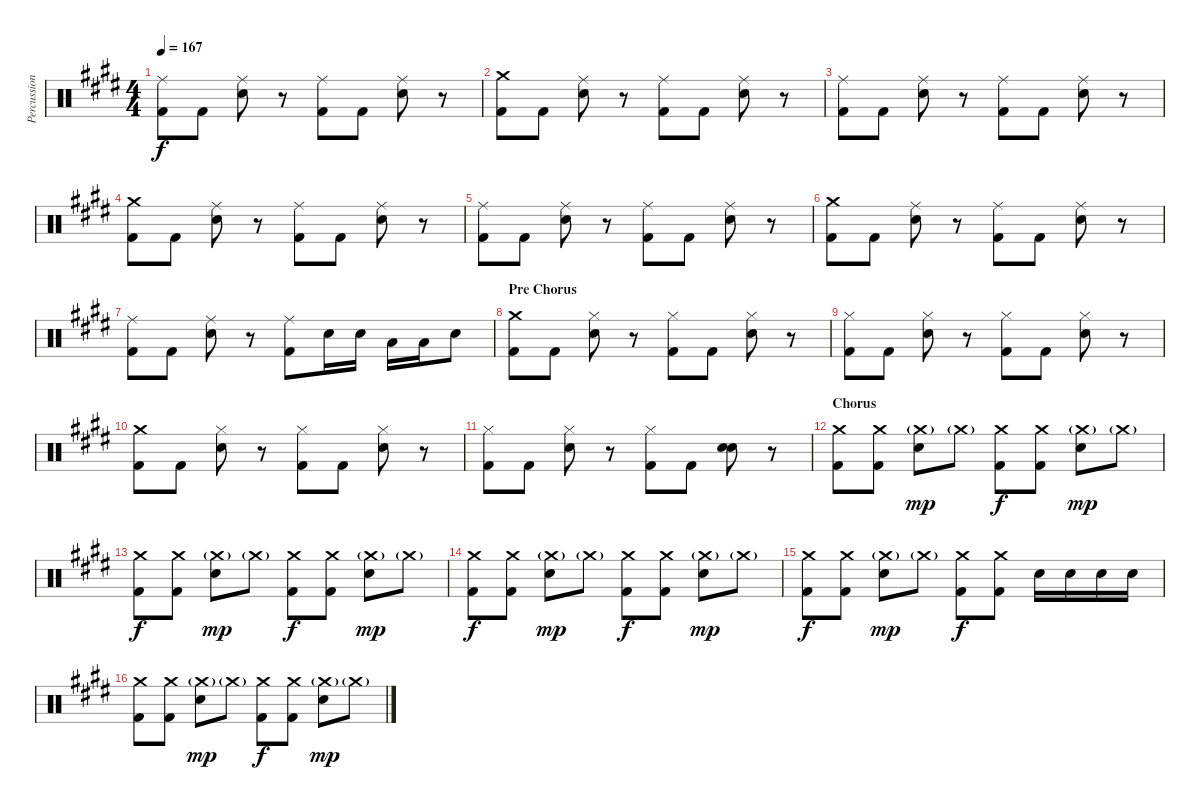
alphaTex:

\track ("Percussion" "Percussion") {instrument percussion}
\staff {score}
\articulation defaults
\ts (4 4)
\tempo 167
\clef neutral
\ks e
("Ride (middle)" "Kick (hit) 2").8{dy f} "Kick (hit) 2".8 ("Ride (middle)" "Electric Snare (hit)").8 r.8 ("Ride (middle)" "Kick (hit) 2").8 "Kick (hit) 2".8 ("Ride (middle)" "Electric Snare (hit)").8 r.8 |
("Crash medium (hit)" "Kick (hit) 2").8 "Kick (hit) 2".8 ("Ride (middle)" "Electric Snare (hit)").8 r.8 ("Ride (middle)" "Kick (hit) 2").8 "Kick (hit) 2".8 ("Ride (middle)" "Electric Snare (hit)").8 r.8 |
("Ride (middle)" "Kick (hit) 2").8 "Kick (hit) 2".8 ("Ride (middle)" "Electric Snare (hit)").8 r.8 ("Ride (middle)" "Kick (hit) 2").8 "Kick (hit) 2".8 ("Ride (middle)" "Electric Snare (hit)").8 r.8 |
("Crash medium (hit)" "Kick (hit) 2").8 "Kick (hit) 2".8 ("Ride (middle)" "Electric Snare (hit)").8 r.8 ("Ride (middle)" "Kick (hit) 2").8 "Kick (hit) 2".8 ("Ride (middle)" "Electric Snare (hit)").8 r.8 |
("Ride (middle)" "Kick (hit) 2").8 "Kick (hit) 2".8 ("Ride (middle)" "Electric Snare (hit)").8 r.8 ("Ride (middle)" "Kick (hit) 2").8 "Kick (hit) 2".8 ("Ride (middle)" "Electric Snare (hit)").8 r.8 |
("Crash medium (hit)" "Kick (hit) 2").8 "Kick (hit) 2".8 ("Ride (middle)" "Electric Snare (hit)").8 r.8 ("Ride (middle)" "Kick (hit) 2").8 "Kick (hit) 2".8 ("Ride (middle)" "Electric Snare (hit)").8 r.8 |
("Ride (middle)" "Kick (hit) 2").8 "Kick (hit) 2".8 ("Ride (middle)" "Electric Snare (hit)").8 r.8 ("Ride (middle)" "Kick (hit) 2").8 "Electric Snare (hit)".16 "Electric Snare (hit)".16 "Low Tom (hit)".16 "Low Tom (hit)".16 "Electric Snare (hit)".8 |
\section ("" "Pre Chorus")
("Crash medium (hit)" "Kick (hit) 2").8 "Kick (hit) 2".8 ("Hi-Hat (closed)" "Electric Snare (hit)").8 r.8 ("Hi-Hat (closed)" "Kick (hit) 2").8 "Kick (hit) 2".8 ("Hi-Hat (closed)" "Electric Snare (hit)").8 r.8 |
("Hi-Hat (closed)" "Kick (hit) 2").8 "Kick (hit) 2".8 ("Hi-Hat (closed)" "Electric Snare (hit)").8 r.8 ("Hi-Hat (closed)" "Kick (hit) 2").8 "Kick (hit) 2".8 ("Hi-Hat (closed)" "Electric Snare (hit)").8 r.8 |
("Crash medium (hit)" "Kick (hit) 2").8 "Kick (hit) 2".8 ("Hi-Hat (closed)" "Electric Snare (hit)").8 r.8 ("Hi-Hat (closed)" "Kick (hit) 2").8 "Kick (hit) 2".8 ("Hi-Hat (closed)" "Electric Snare (hit)").8 r.8 |
("Hi-Hat (closed)" "Kick (hit) 2").8 "Kick (hit) 2".8 ("Hi-Hat (closed)" "Electric Snare (hit)").8 r.8 ("Hi-Hat (closed)" "Kick (hit) 2").8 "Kick (hit) 2".8 ("Electric Snare (hit)" "Electric Snare (hit)").8{bd 240} r.8 |
\section ("" "Chorus")
("Crash medium (hit)" "Kick (hit) 2").8 ("Crash medium (hit)" "Kick (hit) 2").8 ("Crash medium (hit)"{g} "Electric Snare (hit)").8{dy mp} "Crash medium (hit)"{g}.8 ("Crash medium (hit)" "Kick (hit) 2").8{dy f} ("Crash medium (hit)" "Kick (hit) 2").8 ("Crash medium (hit)"{g} "Electric Snare (hit)").8{dy mp} "Crash medium (hit)"{g}.8 |
("Crash medium (hit)" "Kick (hit) 2").8{dy f} ("Crash medium (hit)" "Kick (hit) 2").8 ("Crash medium (hit)"{g} "Electric Snare (hit)").8{dy mp} "Crash medium (hit)"{g}.8 ("Crash medium (hit)" "Kick (hit) 2").8{dy f} ("Crash medium (hit)" "Kick (hit) 2").8 ("Crash medium (hit)"{g} "Electric Snare (hit)").8{dy mp} "Crash medium (hit)"{g}.8 |
("Crash medium (hit)" "Kick (hit) 2").8{dy f} ("Crash medium (hit)" "Kick (hit) 2").8 ("Crash medium (hit)"{g} "Electric Snare (hit)").8{dy mp} "Crash medium (hit)"{g}.8 ("Crash medium (hit)" "Kick (hit) 2").8{dy f} ("Crash medium (hit)" "Kick (hit) 2").8 ("Crash medium (hit)"{g} "Electric Snare (hit)").8{dy mp} "Crash medium (hit)"{g}.8 |
("Crash medium (hit)" "Kick (hit) 2").8{dy f} ("Crash medium (hit)" "Kick (hit) 2").8 ("Crash medium (hit)"{g} "Electric Snare (hit)").8{dy mp} "Crash medium (hit)"{g}.8 ("Crash medium (hit)" "Kick (hit) 2").8{dy f} ("Crash medium (hit)" "Kick (hit) 2").8 "Electric Snare (hit)".16 "Electric Snare (hit)".16 "Electric Snare (hit)".16 "Electric Snare (hit)".16 |
("Crash medium (hit)" "Kick (hit) 2").8 ("Crash medium (hit)" "Kick (hit) 2").8 ("Crash medium (hit)"{g} "Electric Snare (hit)").8{dy mp} "Crash medium (hit)"{g}.8 ("Crash medium (hit)" "Kick (hit) 2").8{dy f} ("Crash medium (hit)" "Kick (hit) 2").8 ("Crash medium (hit)"{g} "Electric Snare (hit)").8{dy mp} "Crash medium (hit)"{g}.8
